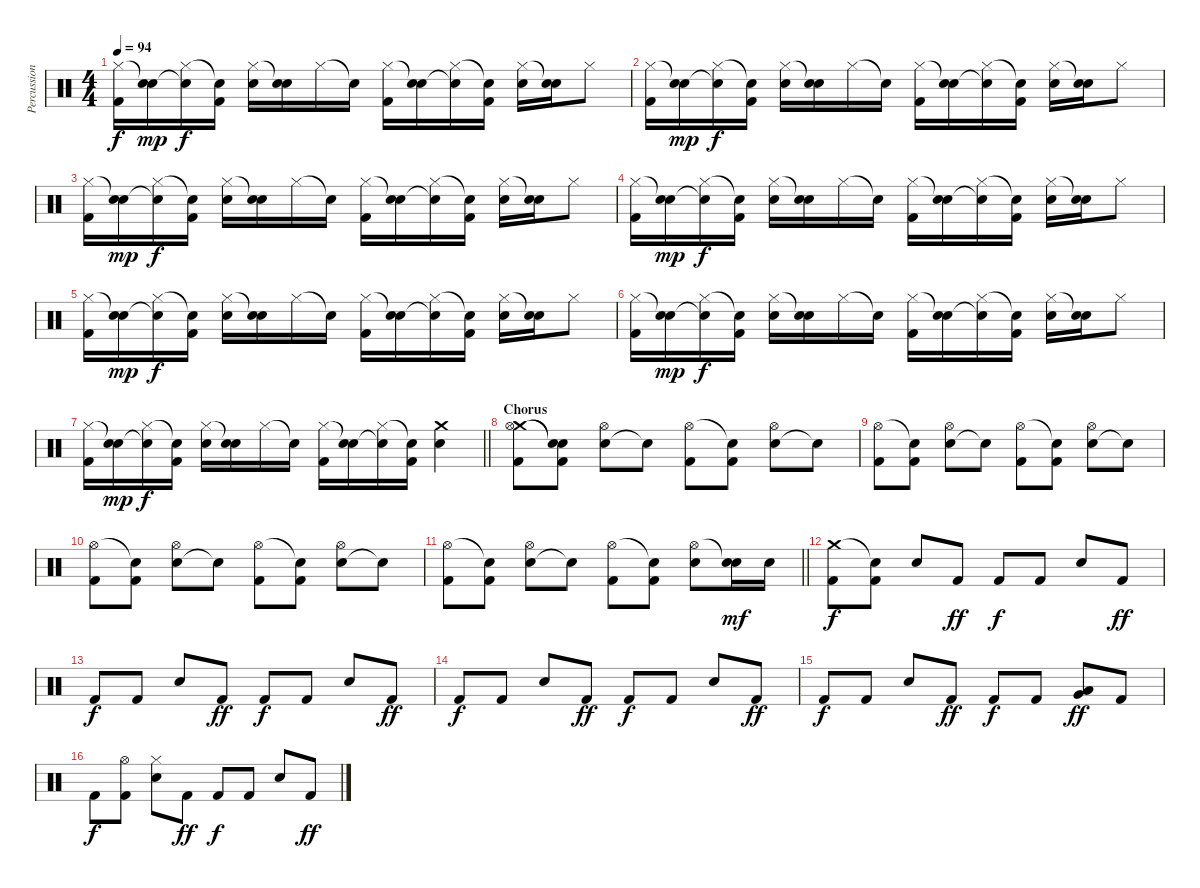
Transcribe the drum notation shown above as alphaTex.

\track ("Percussion" "Percussion") {instrument percussion}
\staff {score}
\articulation defaults
\ts (4 4)
\tempo 94
\clef neutral
\ks c
("Kick (hit) 2" "Hi-Hat (closed)").16{dy f} ("Electric Snare (hit)" "Snare (hit)"{t}).16{dy mp} ("Electric Snare (hit)"{t} "Hi-Hat (closed)").16{dy f} ("Kick (hit) 2" "Snare (hit)"{t}).16 ("Electric Snare (hit)" "Hi-Hat (closed)").16 ("Electric Snare (hit)" "Snare (hit)"{t}).16 "Hi-Hat (closed)".16 "Snare (hit)"{t}.16 ("Kick (hit) 2" "Hi-Hat (closed)").16 ("Electric Snare (hit)" "Snare (hit)"{t}).16 ("Electric Snare (hit)"{t} "Hi-Hat (closed)").16 ("Kick (hit) 2" "Snare (hit)"{t}).16 ("Electric Snare (hit)" "Hi-Hat (closed)").16 ("Electric Snare (hit)" "Snare (hit)"{t}).16 "Hi-Hat (closed)".8 |
("Kick (hit) 2" "Hi-Hat (closed)").16 ("Electric Snare (hit)" "Snare (hit)"{t}).16{dy mp} ("Electric Snare (hit)"{t} "Hi-Hat (closed)").16{dy f} ("Kick (hit) 2" "Snare (hit)"{t}).16 ("Electric Snare (hit)" "Hi-Hat (closed)").16 ("Electric Snare (hit)" "Snare (hit)"{t}).16 "Hi-Hat (closed)".16 "Snare (hit)"{t}.16 ("Kick (hit) 2" "Hi-Hat (closed)").16 ("Electric Snare (hit)" "Snare (hit)"{t}).16 ("Electric Snare (hit)"{t} "Hi-Hat (closed)").16 ("Kick (hit) 2" "Snare (hit)"{t}).16 ("Electric Snare (hit)" "Hi-Hat (closed)").16 ("Electric Snare (hit)" "Snare (hit)"{t}).16 "Hi-Hat (closed)".8 |
("Kick (hit) 2" "Hi-Hat (closed)").16 ("Electric Snare (hit)" "Snare (hit)"{t}).16{dy mp} ("Electric Snare (hit)"{t} "Hi-Hat (closed)").16{dy f} ("Kick (hit) 2" "Snare (hit)"{t}).16 ("Electric Snare (hit)" "Hi-Hat (closed)").16 ("Electric Snare (hit)" "Snare (hit)"{t}).16 "Hi-Hat (closed)".16 "Snare (hit)"{t}.16 ("Kick (hit) 2" "Hi-Hat (closed)").16 ("Electric Snare (hit)" "Snare (hit)"{t}).16 ("Electric Snare (hit)"{t} "Hi-Hat (closed)").16 ("Kick (hit) 2" "Snare (hit)"{t}).16 ("Electric Snare (hit)" "Hi-Hat (closed)").16 ("Electric Snare (hit)" "Snare (hit)"{t}).16 "Hi-Hat (closed)".8 |
("Kick (hit) 2" "Hi-Hat (closed)").16 ("Electric Snare (hit)" "Snare (hit)"{t}).16{dy mp} ("Electric Snare (hit)"{t} "Hi-Hat (closed)").16{dy f} ("Kick (hit) 2" "Snare (hit)"{t}).16 ("Electric Snare (hit)" "Hi-Hat (closed)").16 ("Electric Snare (hit)" "Snare (hit)"{t}).16 "Hi-Hat (closed)".16 "Snare (hit)"{t}.16 ("Kick (hit) 2" "Hi-Hat (closed)").16 ("Electric Snare (hit)" "Snare (hit)"{t}).16 ("Electric Snare (hit)"{t} "Hi-Hat (closed)").16 ("Kick (hit) 2" "Snare (hit)"{t}).16 ("Electric Snare (hit)" "Hi-Hat (closed)").16 ("Electric Snare (hit)" "Snare (hit)"{t}).16 "Hi-Hat (closed)".8 |
("Kick (hit) 2" "Hi-Hat (closed)").16 ("Electric Snare (hit)" "Snare (hit)"{t}).16{dy mp} ("Electric Snare (hit)"{t} "Hi-Hat (closed)").16{dy f} ("Kick (hit) 2" "Snare (hit)"{t}).16 ("Electric Snare (hit)" "Hi-Hat (closed)").16 ("Electric Snare (hit)" "Snare (hit)"{t}).16 "Hi-Hat (closed)".16 "Snare (hit)"{t}.16 ("Kick (hit) 2" "Hi-Hat (closed)").16 ("Electric Snare (hit)" "Snare (hit)"{t}).16 ("Electric Snare (hit)"{t} "Hi-Hat (closed)").16 ("Kick (hit) 2" "Snare (hit)"{t}).16 ("Electric Snare (hit)" "Hi-Hat (closed)").16 ("Electric Snare (hit)" "Snare (hit)"{t}).16 "Hi-Hat (closed)".8 |
("Kick (hit) 2" "Hi-Hat (closed)").16 ("Electric Snare (hit)" "Snare (hit)"{t}).16{dy mp} ("Electric Snare (hit)"{t} "Hi-Hat (closed)").16{dy f} ("Kick (hit) 2" "Snare (hit)"{t}).16 ("Electric Snare (hit)" "Hi-Hat (closed)").16 ("Electric Snare (hit)" "Snare (hit)"{t}).16 "Hi-Hat (closed)".16 "Snare (hit)"{t}.16 ("Kick (hit) 2" "Hi-Hat (closed)").16 ("Electric Snare (hit)" "Snare (hit)"{t}).16 ("Electric Snare (hit)"{t} "Hi-Hat (closed)").16 ("Kick (hit) 2" "Snare (hit)"{t}).16 ("Electric Snare (hit)" "Hi-Hat (closed)").16 ("Electric Snare (hit)" "Snare (hit)"{t}).16 "Hi-Hat (closed)".8 |
\barLineRight lightlight
("Kick (hit) 2" "Hi-Hat (closed)").16 ("Electric Snare (hit)" "Snare (hit)"{t}).16{dy mp} ("Electric Snare (hit)"{t} "Hi-Hat (closed)").16{dy f} ("Kick (hit) 2" "Snare (hit)"{t}).16 ("Electric Snare (hit)" "Hi-Hat (closed)").16 ("Electric Snare (hit)" "Snare (hit)"{t}).16 "Hi-Hat (closed)".16 "Snare (hit)"{t}.16 ("Kick (hit) 2" "Hi-Hat (closed)").16 ("Electric Snare (hit)" "Snare (hit)"{t}).16 ("Electric Snare (hit)"{t} "Hi-Hat (closed)").16 ("Kick (hit) 2" "Snare (hit)"{t}).16 ("Electric Snare (hit)" "Crash medium (hit)").4 |
\section ("" "Chorus")
("Kick (hit) 2" "Crash medium (hit)" "Hi-Hat (open)").8 ("Kick (hit) 2" "Snare (hit)"{t} "Snare (hit)"{t}).8 ("Electric Snare (hit)" "Hi-Hat (open)").8 "Snare (hit)"{t}.8 ("Kick (hit) 2" "Hi-Hat (open)").8 ("Kick (hit) 2" "Snare (hit)"{t}).8 ("Electric Snare (hit)" "Hi-Hat (open)").8 "Snare (hit)"{t}.8 |
("Kick (hit) 2" "Hi-Hat (open)").8 ("Kick (hit) 2" "Snare (hit)"{t}).8 ("Electric Snare (hit)" "Hi-Hat (open)").8 "Snare (hit)"{t}.8 ("Kick (hit) 2" "Hi-Hat (open)").8 ("Kick (hit) 2" "Snare (hit)"{t}).8 ("Electric Snare (hit)" "Hi-Hat (open)").8 "Snare (hit)"{t}.8 |
("Kick (hit) 2" "Hi-Hat (open)").8 ("Kick (hit) 2" "Snare (hit)"{t}).8 ("Electric Snare (hit)" "Hi-Hat (open)").8 "Snare (hit)"{t}.8 ("Kick (hit) 2" "Hi-Hat (open)").8 ("Kick (hit) 2" "Snare (hit)"{t}).8 ("Electric Snare (hit)" "Hi-Hat (open)").8 "Snare (hit)"{t}.8 |
\barLineRight lightlight
("Kick (hit) 2" "Hi-Hat (open)").8 ("Kick (hit) 2" "Snare (hit)"{t}).8 ("Electric Snare (hit)" "Hi-Hat (open)").8 "Snare (hit)"{t}.8 ("Kick (hit) 2" "Hi-Hat (open)").8 ("Kick (hit) 2" "Snare (hit)"{t}).8 ("Electric Snare (hit)" "Hi-Hat (open)").8 ("Electric Snare (hit)" "Snare (hit)"{t}).16{dy mf} "Electric Snare (hit)".16 |
("Kick (hit) 2" "Crash medium (hit)").8{dy f} ("Kick (hit) 2" "Snare (hit)"{t}).8 "Electric Snare (hit)".8 "Kick (hit) 2".8{dy ff} "Kick (hit) 2".8{dy f} "Kick (hit) 2".8 "Electric Snare (hit)".8 "Kick (hit) 2".8{dy ff} |
"Kick (hit) 2".8{dy f} "Kick (hit) 2".8 "Electric Snare (hit)".8 "Kick (hit) 2".8{dy ff} "Kick (hit) 2".8{dy f} "Kick (hit) 2".8 "Electric Snare (hit)".8 "Kick (hit) 2".8{dy ff} |
"Kick (hit) 2".8{dy f} "Kick (hit) 2".8 "Electric Snare (hit)".8 "Kick (hit) 2".8{dy ff} "Kick (hit) 2".8{dy f} "Kick (hit) 2".8 "Electric Snare (hit)".8 "Kick (hit) 2".8{dy ff} |
"Kick (hit) 2".8{dy f} "Kick (hit) 2".8 "Electric Snare (hit)".8 "Kick (hit) 2".8{dy ff} "Kick (hit) 2".8{dy f} "Kick (hit) 2".8 ("Low Tom (hit)" "Very Low Tom (hit)").8{dy ff} "Kick (hit) 2".8 |
"Kick (hit) 2".8{dy f} ("Kick (hit) 2" "Hi-Hat (open)").8 ("Electric Snare (hit)" "Hi-Hat (closed)").8 "Kick (hit) 2".8{dy ff} "Kick (hit) 2".8{dy f} "Kick (hit) 2".8 "Electric Snare (hit)".8 "Kick (hit) 2".8{dy ff}
